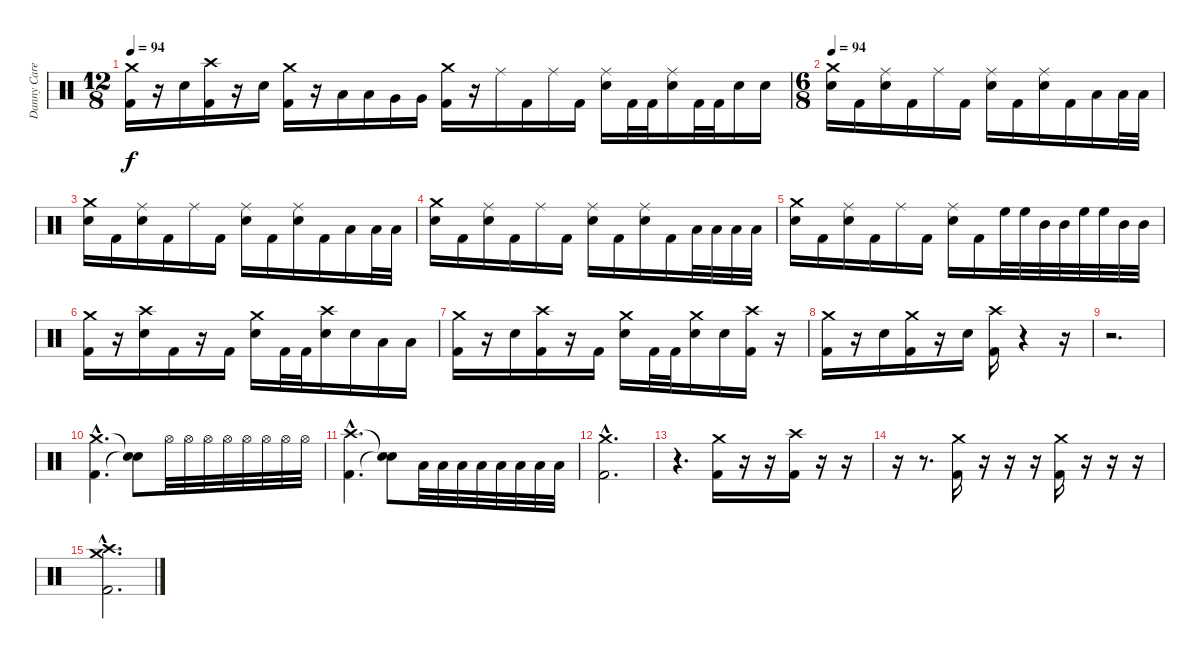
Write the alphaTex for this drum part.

\track ("Danny Carey" "Danny Care") {instrument percussion}
\staff {score}
\articulation defaults
\ts (12 8)
\tempo 94
\clef neutral
\ks c
("Crash medium (hit)" "Kick (hit) 2").16{dy f} r.16 "Electric Snare (hit)".16 ("Crash high (hit)" "Kick (hit) 2").16 r.16 "Electric Snare (hit)".16 ("Crash medium (hit)" "Kick (hit) 2").16 r.16 "Low Tom (hit)".16 "Low Tom (hit)".16 "Very Low Tom (hit)".16 "Very Low Tom (hit)".16 ("Crash medium (hit)" "Kick (hit) 2").16 r.16 "Ride (middle)".16 "Kick (hit) 2".16 "Ride (middle)".16 "Kick (hit) 2".16 ("Ride (middle)" "Electric Snare (hit)").16 "Kick (hit) 2".32 "Kick (hit) 2".32 ("Ride (middle)" "Electric Snare (hit)").16 "Kick (hit) 2".32 "Kick (hit) 2".32 "Electric Snare (hit)".16 "Electric Snare (hit)".16 |
\ts (6 8)
\tempo 94
("Crash medium (hit)" "Electric Snare (hit)").16 "Kick (hit) 2".16 ("Ride (middle)" "Electric Snare (hit)").16 "Kick (hit) 2".16 "Ride (middle)".16 "Kick (hit) 2".16 ("Ride (middle)" "Electric Snare (hit)").16 "Kick (hit) 2".16 ("Ride (middle)" "Electric Snare (hit)").16 "Kick (hit) 2".16 "Low Tom (hit)".16 "Low Tom (hit)".32 "Low Tom (hit)".32 |
("Crash medium (hit)" "Electric Snare (hit)").16 "Kick (hit) 2".16 ("Ride (middle)" "Electric Snare (hit)").16 "Kick (hit) 2".16 "Ride (middle)".16 "Kick (hit) 2".16 ("Ride (middle)" "Electric Snare (hit)").16 "Kick (hit) 2".16 ("Ride (middle)" "Electric Snare (hit)").16 "Kick (hit) 2".16 "Low Tom (hit)".16 "Low Tom (hit)".32 "Low Tom (hit)".32 |
("Crash medium (hit)" "Electric Snare (hit)").16 "Kick (hit) 2".16 ("Ride (middle)" "Electric Snare (hit)").16 "Kick (hit) 2".16 "Ride (middle)".16 "Kick (hit) 2".16 ("Ride (middle)" "Electric Snare (hit)").16 "Kick (hit) 2".16 ("Ride (middle)" "Electric Snare (hit)").16 "Kick (hit) 2".16 "Low Tom (hit)".32 "Low Tom (hit)".32 "Low Tom (hit)".32 "Low Tom (hit)".32 |
("Crash medium (hit)" "Electric Snare (hit)").16 "Kick (hit) 2".16 ("Ride (middle)" "Electric Snare (hit)").16 "Kick (hit) 2".16 "Ride (middle)".16 "Kick (hit) 2".16 ("Ride (middle)" "Electric Snare (hit)").16 "Kick (hit) 2".16 "High Floor Tom (hit)".32 "High Floor Tom (hit)".32 "Mid Tom (hit)".32 "Mid Tom (hit)".32 "High Floor Tom (hit)".32 "High Floor Tom (hit)".32 "Mid Tom (hit)".32 "Mid Tom (hit)".32 |
("Crash medium (hit)" "Kick (hit) 2").16 r.16 ("Crash high (hit)" "Electric Snare (hit)").16 "Kick (hit) 2".16 r.16 "Kick (hit) 2".16 ("Crash medium (hit)" "Electric Snare (hit)").16 "Kick (hit) 2".32 "Kick (hit) 2".32 ("Crash high (hit)" "Electric Snare (hit)").16 "Electric Snare (hit)".16 "Low Tom (hit)".16 "Low Tom (hit)".16 |
("Crash medium (hit)" "Kick (hit) 2").16 r.16 "Electric Snare (hit)".16 ("Crash high (hit)" "Kick (hit) 2").16 r.16 "Kick (hit) 2".16 ("Crash medium (hit)" "Electric Snare (hit)").16 "Kick (hit) 2".32 "Kick (hit) 2".32 ("Crash medium (hit)" "Electric Snare (hit)").16 "Electric Snare (hit)".16 ("Crash high (hit)" "Kick (hit) 2").16 r.16 |
("Crash medium (hit)" "Kick (hit) 2").16 r.16 "Electric Snare (hit)".16 ("Crash medium (hit)" "Kick (hit) 2").16 r.16 "Electric Snare (hit)".16 ("Crash high (hit)" "Kick (hit) 2").16 r.4 r.16 |
r.2{d} |
("Crash medium (hit)"{hac} "Kick (hit) 2"{hac}).4{d} ("Snare (hit)"{t} "Snare (hit)"{t}).8 "Hi-Hat (open)".32 "Hi-Hat (open)".32 "Hi-Hat (open)".32 "Hi-Hat (open)".32 "Hi-Hat (open)".32 "Hi-Hat (open)".32 "Hi-Hat (open)".32 "Hi-Hat (open)".32 |
("Crash high (hit)"{hac} "Kick (hit) 2"{hac}).4{d} ("Snare (hit)"{t} "Snare (hit)"{t}).8 "Low Floor Tom (hit)".32 "Low Floor Tom (hit)".32 "Low Floor Tom (hit)".32 "Low Floor Tom (hit)".32 "Low Floor Tom (hit)".32 "Low Floor Tom (hit)".32 "Low Floor Tom (hit)".32 "Low Floor Tom (hit)".32 |
("Crash medium (hit)"{hac} "Kick (hit) 2"{hac}).2{d} |
r.4{d} ("Crash medium (hit)" "Kick (hit) 2").16 r.16 r.16 ("Crash high (hit)" "Kick (hit) 2").16 r.16 r.16 |
r.16 r.8{d} ("Crash medium (hit)" "Kick (hit) 2").16 r.16 r.16 r.16 ("Crash medium (hit)" "Kick (hit) 2").16 r.16 r.16 r.16 |
("Crash high (hit)"{hac} "Crash medium (hit)"{hac} "Kick (hit) 2"{hac}).2{d}
